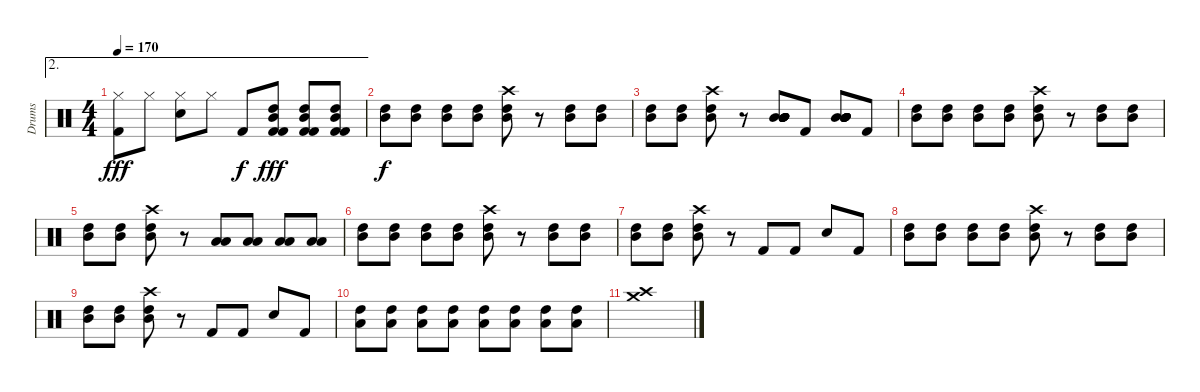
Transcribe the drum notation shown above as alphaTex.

\track ("Drums" "Drums") {instrument percussion}
\staff {score}
\articulation defaults
\ae 2
\ts (4 4)
\tempo 170
\clef neutral
\ks c
("Hi-Hat (closed)" "Kick (hit) 2").8{dy fff} "Hi-Hat (closed)".8 ("Hi-Hat (closed)" "Electric Snare (hit)").8 "Hi-Hat (closed)".8 "Kick (hit) 2".8{dy f} ("High Tom (hit)" "Kick (hit) 2" "Mid Tom (hit)" "Kick (hit) 2").8{dy fff} ("High Tom (hit)" "Kick (hit) 2" "Mid Tom (hit)" "Kick (hit) 2").8 ("High Tom (hit)" "Kick (hit) 2" "Mid Tom (hit)" "Kick (hit) 2").8 |
("High Tom (hit)" "Mid Tom (hit)").8{dy f} ("High Tom (hit)" "Mid Tom (hit)").8 ("High Tom (hit)" "Mid Tom (hit)").8 ("High Tom (hit)" "Mid Tom (hit)").8 ("Crash high (hit)" "High Tom (hit)" "Mid Tom (hit)").8 r.8 ("High Tom (hit)" "Mid Tom (hit)").8 ("High Tom (hit)" "Mid Tom (hit)").8 |
("High Tom (hit)" "Mid Tom (hit)").8 ("High Tom (hit)" "Mid Tom (hit)").8 ("Crash high (hit)" "High Tom (hit)" "Mid Tom (hit)").8 r.8 ("Mid Tom (hit)" "Mid Tom (hit)" "Mid Tom (hit)" "Mid Tom (hit)" "Mid Tom (hit)" "Mid Tom (hit)").8 "Kick (hit) 2".8 ("Mid Tom (hit)" "Mid Tom (hit)" "Mid Tom (hit)" "Mid Tom (hit)" "Mid Tom (hit)" "Mid Tom (hit)").8 "Kick (hit) 2".8 |
("High Tom (hit)" "Mid Tom (hit)").8 ("High Tom (hit)" "Mid Tom (hit)").8 ("High Tom (hit)" "Mid Tom (hit)").8 ("High Tom (hit)" "Mid Tom (hit)").8 ("Crash high (hit)" "High Tom (hit)" "Mid Tom (hit)").8 r.8 ("High Tom (hit)" "Mid Tom (hit)").8 ("High Tom (hit)" "Mid Tom (hit)").8 |
("High Tom (hit)" "Mid Tom (hit)").8 ("High Tom (hit)" "Mid Tom (hit)").8 ("Crash high (hit)" "High Tom (hit)" "Mid Tom (hit)").8 r.8 ("Low Tom (hit)" "Low Tom (hit)").8 ("Low Tom (hit)" "Low Tom (hit)").8 ("Low Tom (hit)" "Low Tom (hit)").8 ("Low Tom (hit)" "Low Tom (hit)").8 |
("High Tom (hit)" "Mid Tom (hit)").8 ("High Tom (hit)" "Mid Tom (hit)").8 ("High Tom (hit)" "Mid Tom (hit)").8 ("High Tom (hit)" "Mid Tom (hit)").8 ("Crash high (hit)" "High Tom (hit)" "Mid Tom (hit)").8 r.8 ("High Tom (hit)" "Mid Tom (hit)").8 ("High Tom (hit)" "Mid Tom (hit)").8 |
("High Tom (hit)" "Mid Tom (hit)").8 ("High Tom (hit)" "Mid Tom (hit)").8 ("Crash high (hit)" "High Tom (hit)" "Mid Tom (hit)").8 r.8 "Kick (hit) 2".8 "Kick (hit) 2".8 "Snare (hit) 2".8 "Kick (hit) 2".8 |
("High Tom (hit)" "Mid Tom (hit)").8 ("High Tom (hit)" "Mid Tom (hit)").8 ("High Tom (hit)" "Mid Tom (hit)").8 ("High Tom (hit)" "Mid Tom (hit)").8 ("Crash high (hit)" "High Tom (hit)" "Mid Tom (hit)").8 r.8 ("High Tom (hit)" "Mid Tom (hit)").8 ("High Tom (hit)" "Mid Tom (hit)").8 |
("High Tom (hit)" "Mid Tom (hit)").8 ("High Tom (hit)" "Mid Tom (hit)").8 ("Crash high (hit)" "High Tom (hit)" "Mid Tom (hit)").8 r.8 "Kick (hit) 2".8 "Kick (hit) 2".8 "Snare (hit) 2".8 "Kick (hit) 2".8 |
("High Tom (hit)" "Low Floor Tom (hit)").8 ("High Tom (hit)" "Low Floor Tom (hit)").8 ("High Tom (hit)" "Low Floor Tom (hit)").8 ("High Tom (hit)" "Low Floor Tom (hit)").8 ("High Tom (hit)" "Low Floor Tom (hit)").8 ("High Tom (hit)" "Low Floor Tom (hit)").8 ("High Tom (hit)" "Low Floor Tom (hit)").8 ("High Tom (hit)" "Low Floor Tom (hit)").8 |
("Crash medium (hit)" "Crash high (hit)").1
